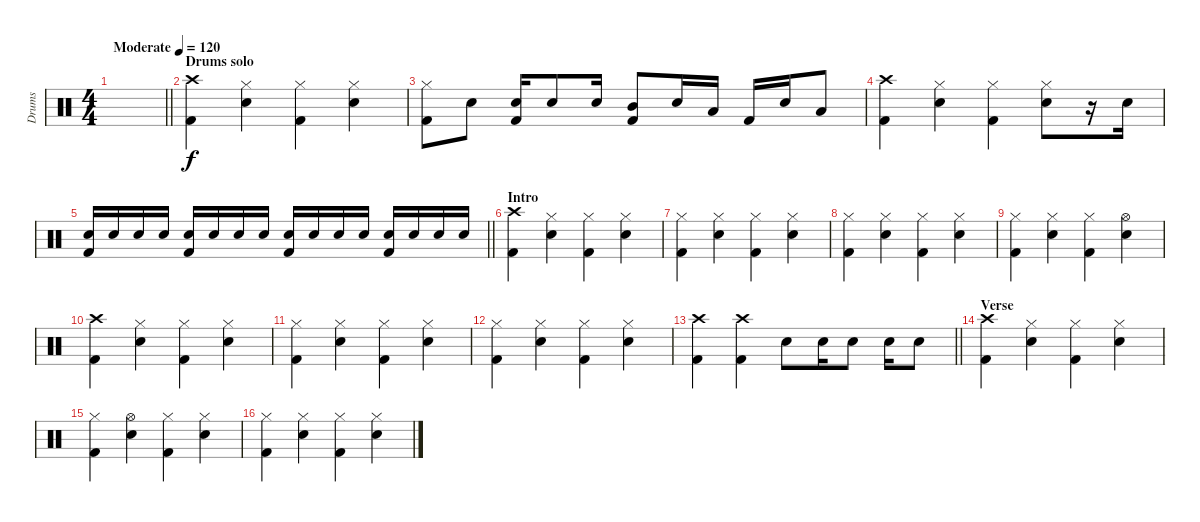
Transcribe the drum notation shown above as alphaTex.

\track ("Drums" "Drums") {instrument percussion}
\staff {score}
\articulation defaults
\ts (4 4)
\tempo (120 "Moderate")
\clef neutral
\barLineRight lightlight
\ks c
|
\section ("" "Drums solo")
("Crash high (hit)" "Kick (hit) 2").4 ("Hi-Hat (closed)" "Snare (hit) 2").4 ("Hi-Hat (closed)" "Kick (hit) 2").4 ("Hi-Hat (closed)" "Snare (hit) 2").4 |
("Hi-Hat (closed)" "Kick (hit) 2").8 "Snare (hit) 2".8 ("Kick (hit) 2" "Snare (hit) 2").16 "Snare (hit) 2".8 "Snare (hit) 2".16 ("Kick (hit) 2" "Mid Tom (hit)").8 "Snare (hit) 2".16 "Low Tom (hit)".16 "Kick (hit) 2".16 "Snare (hit) 2".16 "Low Floor Tom (hit)".8 |
("Crash high (hit)" "Kick (hit) 2").4 ("Hi-Hat (closed)" "Snare (hit) 2").4 ("Hi-Hat (closed)" "Kick (hit) 2").4 ("Hi-Hat (closed)" "Snare (hit) 2").8 r.16 "Snare (hit) 2".16 |
\barLineRight lightlight
("Kick (hit) 2" "Snare (hit) 2").16 "Snare (hit) 2".16 "Snare (hit) 2".16 "Snare (hit) 2".16 ("Kick (hit) 2" "Snare (hit) 2").16 "Snare (hit) 2".16 "Snare (hit) 2".16 "Snare (hit) 2".16 ("Kick (hit) 2" "Snare (hit) 2").16 "Snare (hit) 2".16 "Snare (hit) 2".16 "Snare (hit) 2".16 ("Kick (hit) 2" "Snare (hit) 2").16 "Snare (hit) 2".16 "Snare (hit) 2".16 "Snare (hit) 2".16 |
\section ("" "Intro")
("Crash high (hit)" "Kick (hit) 2").4 ("Hi-Hat (closed)" "Snare (hit) 2").4 ("Hi-Hat (closed)" "Kick (hit) 2").4 ("Hi-Hat (closed)" "Snare (hit) 2").4 |
("Hi-Hat (closed)" "Kick (hit) 2").4 ("Hi-Hat (closed)" "Snare (hit) 2").4 ("Hi-Hat (closed)" "Kick (hit) 2").4 ("Hi-Hat (closed)" "Snare (hit) 2").4 |
("Hi-Hat (closed)" "Kick (hit) 2").4 ("Hi-Hat (closed)" "Snare (hit) 2").4 ("Hi-Hat (closed)" "Kick (hit) 2").4 ("Hi-Hat (closed)" "Snare (hit) 2").4 |
("Hi-Hat (closed)" "Kick (hit) 2").4 ("Hi-Hat (closed)" "Snare (hit) 2").4 ("Hi-Hat (closed)" "Kick (hit) 2").4 ("Hi-Hat (open)" "Snare (hit) 2").4 |
("Crash high (hit)" "Kick (hit) 2").4 ("Hi-Hat (closed)" "Snare (hit) 2").4 ("Hi-Hat (closed)" "Kick (hit) 2").4 ("Hi-Hat (closed)" "Snare (hit) 2").4 |
("Hi-Hat (closed)" "Kick (hit) 2").4 ("Hi-Hat (closed)" "Snare (hit) 2").4 ("Hi-Hat (closed)" "Kick (hit) 2").4 ("Hi-Hat (closed)" "Snare (hit) 2").4 |
("Hi-Hat (closed)" "Kick (hit) 2").4 ("Hi-Hat (closed)" "Snare (hit) 2").4 ("Hi-Hat (closed)" "Kick (hit) 2").4 ("Hi-Hat (closed)" "Snare (hit) 2").4 |
\barLineRight lightlight
("Crash high (hit)" "Kick (hit) 2").4 ("Crash high (hit)" "Kick (hit) 2").4 "Snare (hit) 2".8 "Snare (hit) 2".16 "Snare (hit) 2".8 "Snare (hit) 2".16 "Snare (hit) 2".8 |
\section ("" "Verse")
("Crash high (hit)" "Kick (hit) 2").4 ("Hi-Hat (closed)" "Snare (hit) 2").4 ("Hi-Hat (closed)" "Kick (hit) 2").4 ("Hi-Hat (closed)" "Snare (hit) 2").4 |
("Hi-Hat (closed)" "Kick (hit) 2").4 ("Hi-Hat (open)" "Snare (hit) 2").4 ("Hi-Hat (closed)" "Kick (hit) 2").4 ("Hi-Hat (closed)" "Snare (hit) 2").4 |
("Hi-Hat (closed)" "Kick (hit) 2").4 ("Hi-Hat (closed)" "Snare (hit) 2").4 ("Hi-Hat (closed)" "Kick (hit) 2").4 ("Hi-Hat (closed)" "Snare (hit) 2").4
